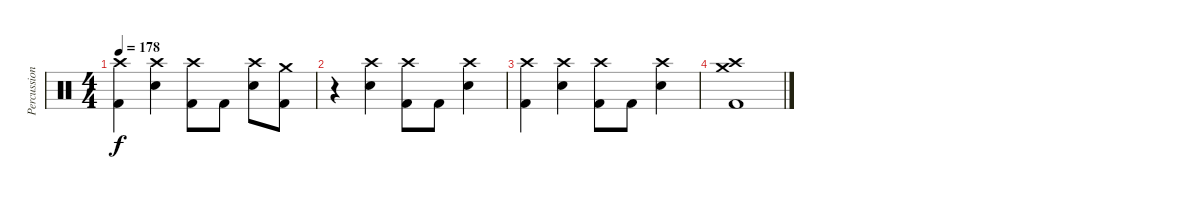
\track ("Percussion" "Percussion") {instrument percussion}
\staff {score}
\articulation defaults
\ts (4 4)
\tempo 178
\clef neutral
\ks c
("Crash high (hit)" "Kick (hit) 2").4{dy f} ("Crash high (hit)" "Snare (hit) 2").4 ("Crash high (hit)" "Kick (hit) 2").8 "Kick (hit) 2".8 ("Crash high (hit)" "Snare (hit) 2").8 ("Crash medium (hit)" "Kick (hit) 2").8 |
r.4 ("Crash high (hit)" "Snare (hit) 2").4 ("Crash high (hit)" "Kick (hit) 2").8 "Kick (hit) 2".8 ("Crash high (hit)" "Snare (hit) 2").4 |
("Crash high (hit)" "Kick (hit) 2").4 ("Crash high (hit)" "Snare (hit) 2").4 ("Crash high (hit)" "Kick (hit) 2").8 "Kick (hit) 2".8 ("Crash high (hit)" "Snare (hit) 2").4 |
("Crash high (hit)" "Crash medium (hit)" "Kick (hit) 2").1
